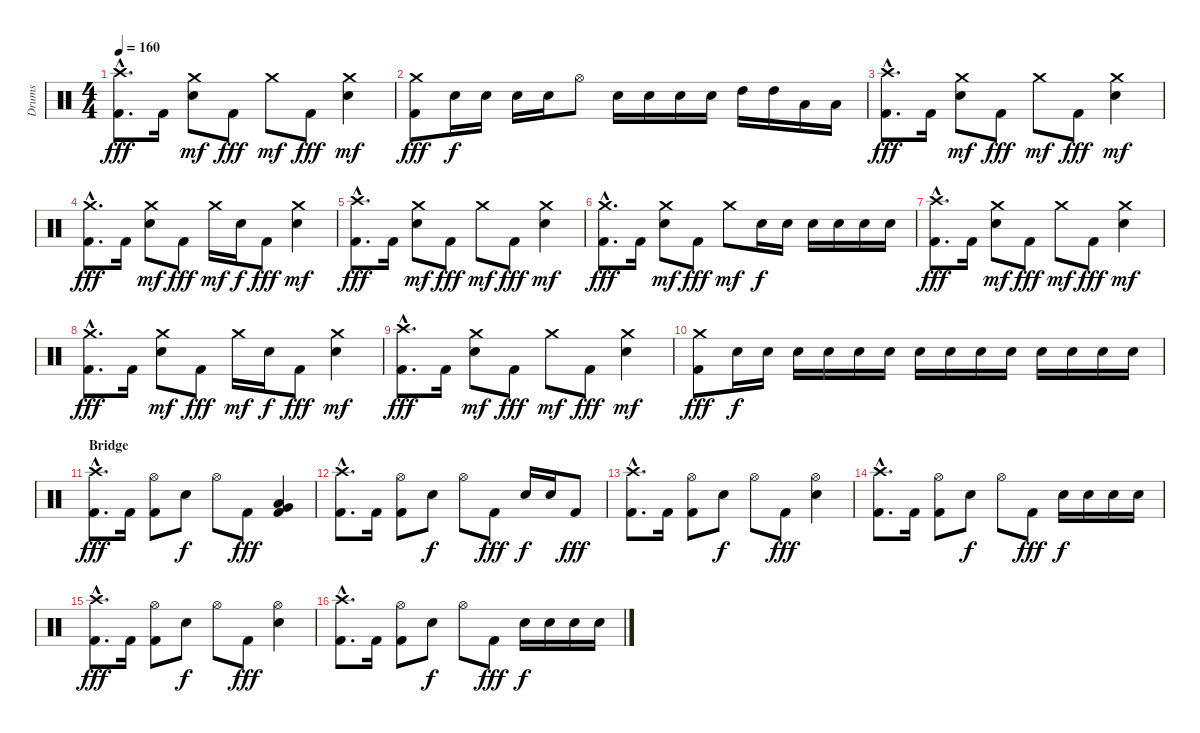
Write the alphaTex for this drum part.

\track ("Drums" "Drums") {instrument percussion}
\staff {score}
\articulation defaults
\ts (4 4)
\tempo 160
\clef neutral
\ks c
("Crash high (hit)"{hac} "Kick (hit) 2"{hac}).8{d dy fff} "Kick (hit) 2".16 ("Crash medium (hit)" "Snare (hit) 2").8{dy mf} "Kick (hit) 2".8{dy fff} "Crash medium (hit)".8{dy mf} "Kick (hit) 2".8{dy fff} ("Crash medium (hit)" "Snare (hit) 2").4{dy mf} |
("Crash medium (hit)" "Kick (hit) 2").8{dy fff} "Snare (hit) 2".16{dy f} "Snare (hit) 2".16 "Snare (hit) 2".16 "Snare (hit) 2".16 "Hi-Hat (open)".8 "Snare (hit) 2".16 "Snare (hit) 2".16 "Snare (hit) 2".16 "Snare (hit) 2".16 "High Tom (hit)".16 "High Tom (hit)".16 "Low Tom (hit)".16 "Low Tom (hit)".16 |
("Crash high (hit)"{hac} "Kick (hit) 2"{hac}).8{d dy fff} "Kick (hit) 2".16 ("Crash medium (hit)" "Snare (hit) 2").8{dy mf} "Kick (hit) 2".8{dy fff} "Crash medium (hit)".8{dy mf} "Kick (hit) 2".8{dy fff} ("Crash medium (hit)" "Snare (hit) 2").4{dy mf} |
("Crash medium (hit)"{hac} "Kick (hit) 2"{hac}).8{d dy fff} "Kick (hit) 2".16 ("Crash medium (hit)" "Snare (hit) 2").8{dy mf} "Kick (hit) 2".8{dy fff} "Crash medium (hit)".16{dy mf} "Snare (hit) 2".16{dy f} "Kick (hit) 2".8{dy fff} ("Crash medium (hit)" "Snare (hit) 2").4{dy mf} |
("Crash high (hit)"{hac} "Kick (hit) 2"{hac}).8{d dy fff} "Kick (hit) 2".16 ("Crash medium (hit)" "Snare (hit) 2").8{dy mf} "Kick (hit) 2".8{dy fff} "Crash medium (hit)".8{dy mf} "Kick (hit) 2".8{dy fff} ("Crash medium (hit)" "Snare (hit) 2").4{dy mf} |
("Crash medium (hit)"{hac} "Kick (hit) 2"{hac}).8{d dy fff} "Kick (hit) 2".16 ("Crash medium (hit)" "Snare (hit) 2").8{dy mf} "Kick (hit) 2".8{dy fff} "Crash medium (hit)".8{dy mf} "Snare (hit) 2".16{dy f} "Snare (hit) 2".16 "Snare (hit) 2".16 "Snare (hit) 2".16 "Snare (hit) 2".16 "Snare (hit) 2".16 |
("Crash high (hit)"{hac} "Kick (hit) 2"{hac}).8{d dy fff} "Kick (hit) 2".16 ("Crash medium (hit)" "Snare (hit) 2").8{dy mf} "Kick (hit) 2".8{dy fff} "Crash medium (hit)".8{dy mf} "Kick (hit) 2".8{dy fff} ("Crash medium (hit)" "Snare (hit) 2").4{dy mf} |
("Crash medium (hit)"{hac} "Kick (hit) 2"{hac}).8{d dy fff} "Kick (hit) 2".16 ("Crash medium (hit)" "Snare (hit) 2").8{dy mf} "Kick (hit) 2".8{dy fff} "Crash medium (hit)".16{dy mf} "Snare (hit) 2".16{dy f} "Kick (hit) 2".8{dy fff} ("Crash medium (hit)" "Snare (hit) 2").4{dy mf} |
("Crash high (hit)"{hac} "Kick (hit) 2"{hac}).8{d dy fff} "Kick (hit) 2".16 ("Crash medium (hit)" "Snare (hit) 2").8{dy mf} "Kick (hit) 2".8{dy fff} "Crash medium (hit)".8{dy mf} "Kick (hit) 2".8{dy fff} ("Crash medium (hit)" "Snare (hit) 2").4{dy mf} |
("Crash medium (hit)" "Kick (hit) 2").8{dy fff} "Snare (hit) 2".16{dy f} "Snare (hit) 2".16 "Snare (hit) 2".16 "Snare (hit) 2".16 "Snare (hit) 2".16 "Snare (hit) 2".16 "Snare (hit) 2".16 "Snare (hit) 2".16 "Snare (hit) 2".16 "Snare (hit) 2".16 "Snare (hit) 2".16 "Snare (hit) 2".16 "Snare (hit) 2".16 "Snare (hit) 2".16 |
\section ("" "Bridge")
("Crash high (hit)"{hac} "Kick (hit) 2"{hac}).8{d dy fff} "Kick (hit) 2".16 ("Hi-Hat (open)" "Kick (hit) 2").8 "Snare (hit) 2".8{dy f} "Hi-Hat (open)".8 "Kick (hit) 2".8{dy fff} ("Very Low Tom (hit)" "Low Floor Tom (hit)" "Kick (hit) 2").4 |
("Crash high (hit)"{hac} "Kick (hit) 2"{hac}).8{d} "Kick (hit) 2".16 ("Hi-Hat (open)" "Kick (hit) 2").8 "Snare (hit) 2".8{dy f} "Hi-Hat (open)".8 "Kick (hit) 2".8{dy fff} "Snare (hit) 2".16{dy f} "Snare (hit) 2".16 "Kick (hit) 2".8{dy fff} |
("Crash high (hit)"{hac} "Kick (hit) 2"{hac}).8{d} "Kick (hit) 2".16 ("Hi-Hat (open)" "Kick (hit) 2").8 "Snare (hit) 2".8{dy f} "Hi-Hat (open)".8 "Kick (hit) 2".8{dy fff} ("Hi-Hat (open)" "Snare (hit) 2").4 |
("Crash high (hit)"{hac} "Kick (hit) 2"{hac}).8{d} "Kick (hit) 2".16 ("Hi-Hat (open)" "Kick (hit) 2").8 "Snare (hit) 2".8{dy f} "Hi-Hat (open)".8 "Kick (hit) 2".8{dy fff} "Snare (hit) 2".16{dy f} "Snare (hit) 2".16 "Snare (hit) 2".16 "Snare (hit) 2".16 |
("Crash high (hit)"{hac} "Kick (hit) 2"{hac}).8{d dy fff} "Kick (hit) 2".16 ("Hi-Hat (open)" "Kick (hit) 2").8 "Snare (hit) 2".8{dy f} "Hi-Hat (open)".8 "Kick (hit) 2".8{dy fff} ("Hi-Hat (open)" "Snare (hit) 2").4 |
("Crash high (hit)"{hac} "Kick (hit) 2"{hac}).8{d} "Kick (hit) 2".16 ("Hi-Hat (open)" "Kick (hit) 2").8 "Snare (hit) 2".8{dy f} "Hi-Hat (open)".8 "Kick (hit) 2".8{dy fff} "Snare (hit) 2".16{dy f} "Snare (hit) 2".16 "Snare (hit) 2".16 "Snare (hit) 2".16
